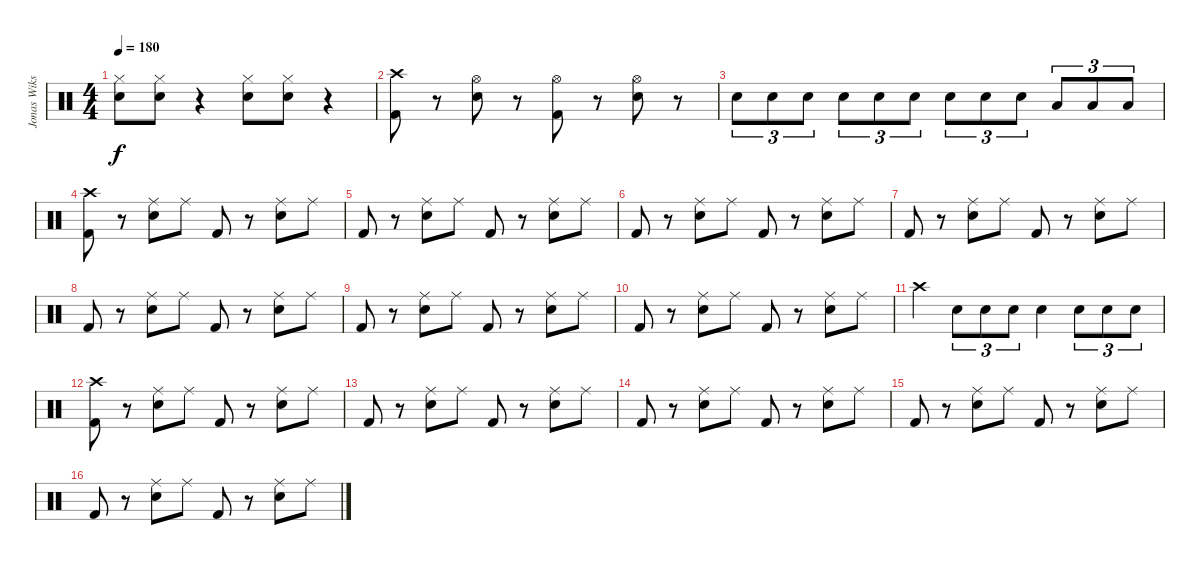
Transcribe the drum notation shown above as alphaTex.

\track ("Jonas Wikstrand" "Jonas Wiks") {instrument percussion}
\staff {score}
\articulation defaults
\ts (4 4)
\tempo 180
\clef neutral
\ks c
("Hi-Hat (closed)" "Snare (hit) 2").8{dy f} ("Hi-Hat (closed)" "Snare (hit) 2").8 r.4 ("Hi-Hat (closed)" "Snare (hit) 2").8 ("Hi-Hat (closed)" "Snare (hit) 2").8 r.4 |
("Crash high (hit)" "Kick (hit) 2").8 r.8 ("Hi-Hat (open)" "Snare (hit) 2").8 r.8 ("Hi-Hat (open)" "Kick (hit) 2").8 r.8 ("Hi-Hat (open)" "Snare (hit) 2").8 r.8 |
"Snare (hit) 2".8{tu (3 2)} "Snare (hit) 2".8{tu (3 2)} "Snare (hit) 2".8{tu (3 2)} "Snare (hit) 2".8{tu (3 2)} "Snare (hit) 2".8{tu (3 2)} "Snare (hit) 2".8{tu (3 2)} "Snare (hit) 2".8{tu (3 2)} "Snare (hit) 2".8{tu (3 2)} "Snare (hit) 2".8{tu (3 2)} "Low Tom (hit)".8{tu (3 2)} "Low Tom (hit)".8{tu (3 2)} "Low Tom (hit)".8{tu (3 2)} |
("Crash high (hit)" "Kick (hit) 2").8 r.8 ("Ride (middle)" "Snare (hit) 2").8 "Ride (middle)".8 "Kick (hit) 2".8 r.8 ("Ride (middle)" "Snare (hit) 2").8 "Ride (middle)".8 |
"Kick (hit) 2".8 r.8 ("Ride (middle)" "Snare (hit) 2").8 "Ride (middle)".8 "Kick (hit) 2".8 r.8 ("Ride (middle)" "Snare (hit) 2").8 "Ride (middle)".8 |
"Kick (hit) 2".8 r.8 ("Ride (middle)" "Snare (hit) 2").8 "Ride (middle)".8 "Kick (hit) 2".8 r.8 ("Ride (middle)" "Snare (hit) 2").8 "Ride (middle)".8 |
"Kick (hit) 2".8 r.8 ("Ride (middle)" "Snare (hit) 2").8 "Ride (middle)".8 "Kick (hit) 2".8 r.8 ("Ride (middle)" "Snare (hit) 2").8 "Ride (middle)".8 |
"Kick (hit) 2".8 r.8 ("Ride (middle)" "Snare (hit) 2").8 "Ride (middle)".8 "Kick (hit) 2".8 r.8 ("Ride (middle)" "Snare (hit) 2").8 "Ride (middle)".8 |
"Kick (hit) 2".8 r.8 ("Ride (middle)" "Snare (hit) 2").8 "Ride (middle)".8 "Kick (hit) 2".8 r.8 ("Ride (middle)" "Snare (hit) 2").8 "Ride (middle)".8 |
"Kick (hit) 2".8 r.8 ("Ride (middle)" "Snare (hit) 2").8 "Ride (middle)".8 "Kick (hit) 2".8 r.8 ("Ride (middle)" "Snare (hit) 2").8 "Ride (middle)".8 |
"Crash high (hit)".4 "Snare (hit) 2".8{tu (3 2)} "Snare (hit) 2".8{tu (3 2)} "Snare (hit) 2".8{tu (3 2)} "Snare (hit) 2".4 "Snare (hit) 2".8{tu (3 2)} "Snare (hit) 2".8{tu (3 2)} "Snare (hit) 2".8{tu (3 2)} |
("Crash high (hit)" "Kick (hit) 2").8 r.8 ("Ride (middle)" "Snare (hit) 2").8 "Ride (middle)".8 "Kick (hit) 2".8 r.8 ("Ride (middle)" "Snare (hit) 2").8 "Ride (middle)".8 |
"Kick (hit) 2".8 r.8 ("Ride (middle)" "Snare (hit) 2").8 "Ride (middle)".8 "Kick (hit) 2".8 r.8 ("Ride (middle)" "Snare (hit) 2").8 "Ride (middle)".8 |
"Kick (hit) 2".8 r.8 ("Ride (middle)" "Snare (hit) 2").8 "Ride (middle)".8 "Kick (hit) 2".8 r.8 ("Ride (middle)" "Snare (hit) 2").8 "Ride (middle)".8 |
"Kick (hit) 2".8 r.8 ("Ride (middle)" "Snare (hit) 2").8 "Ride (middle)".8 "Kick (hit) 2".8 r.8 ("Ride (middle)" "Snare (hit) 2").8 "Ride (middle)".8 |
"Kick (hit) 2".8 r.8 ("Ride (middle)" "Snare (hit) 2").8 "Ride (middle)".8 "Kick (hit) 2".8 r.8 ("Ride (middle)" "Snare (hit) 2").8 "Ride (middle)".8
